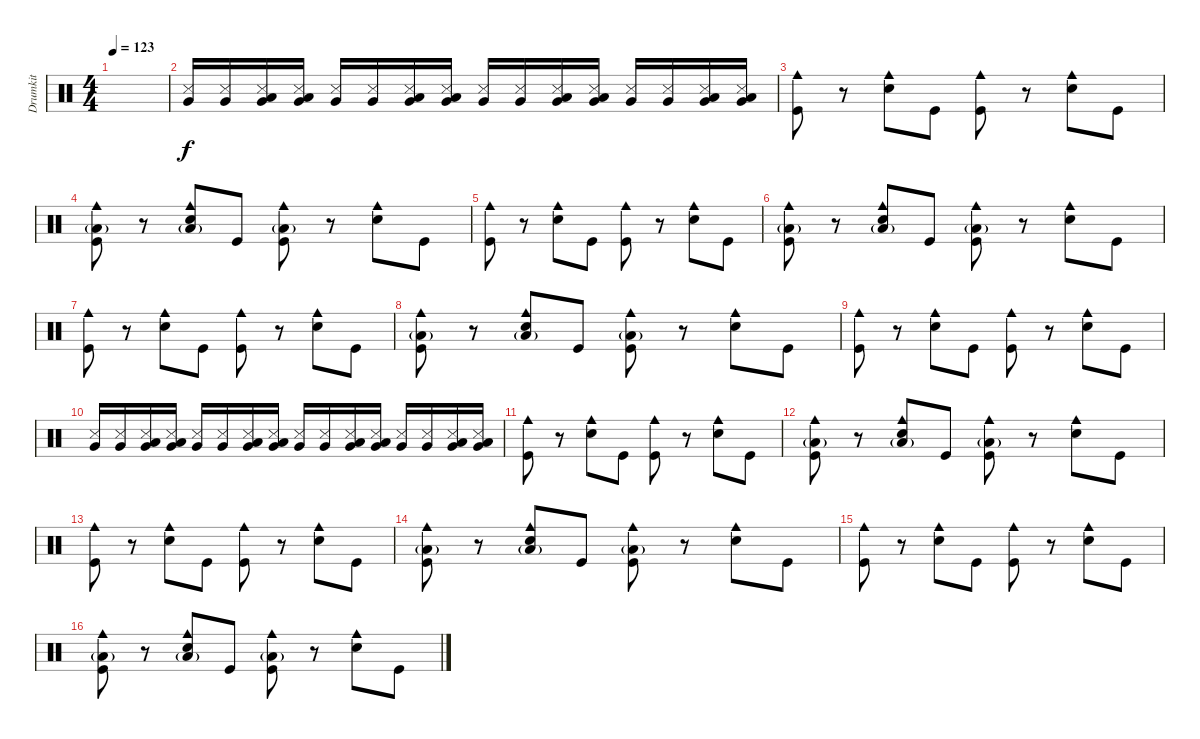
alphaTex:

\track ("Drumkit" "Drumkit") {instrument percussion}
\staff {score}
\articulation defaults
\ts (4 4)
\tempo 123
\clef neutral
\ks c
|
("Snare (side stick) 3" "Very Low Tom (hit)").16 ("Snare (side stick) 3" "Very Low Tom (hit)").16 ("Snare (side stick) 3" "Very Low Tom (hit)" "Low Floor Tom (hit)").16 ("Snare (side stick) 3" "Very Low Tom (hit)" "Low Floor Tom (hit)").16 ("Snare (side stick) 3" "Very Low Tom (hit)").16 ("Snare (side stick) 3" "Very Low Tom (hit)").16 ("Snare (side stick) 3" "Very Low Tom (hit)" "Low Floor Tom (hit)").16 ("Snare (side stick) 3" "Very Low Tom (hit)" "Low Floor Tom (hit)").16 ("Snare (side stick) 3" "Very Low Tom (hit)").16 ("Snare (side stick) 3" "Very Low Tom (hit)").16 ("Snare (side stick) 3" "Very Low Tom (hit)" "Low Floor Tom (hit)").16 ("Snare (side stick) 3" "Very Low Tom (hit)" "Low Floor Tom (hit)").16 ("Snare (side stick) 3" "Very Low Tom (hit)").16 ("Snare (side stick) 3" "Very Low Tom (hit)").16 ("Snare (side stick) 3" "Very Low Tom (hit)" "Low Floor Tom (hit)").16 ("Snare (side stick) 3" "Very Low Tom (hit)" "Low Floor Tom (hit)").16 |
("Kick (hit)" "Cowbell medium (hit)").8 r.8 ("Snare (hit) 2" "Cowbell medium (hit)").8 "Kick (hit)".8 ("Kick (hit)" "Cowbell medium (hit)").8 r.8 ("Snare (hit) 2" "Cowbell medium (hit)").8 "Kick (hit)".8 |
("Kick (hit)" "Low Floor Tom (hit)"{g} "Cowbell medium (hit)").8 r.8 ("Snare (hit) 2" "Low Floor Tom (hit)"{g} "Cowbell medium (hit)").8 "Kick (hit)".8 ("Kick (hit)" "Low Floor Tom (hit)"{g} "Cowbell medium (hit)").8 r.8 ("Snare (hit) 2" "Cowbell medium (hit)").8 "Kick (hit)".8 |
("Kick (hit)" "Cowbell medium (hit)").8 r.8 ("Snare (hit) 2" "Cowbell medium (hit)").8 "Kick (hit)".8 ("Kick (hit)" "Cowbell medium (hit)").8 r.8 ("Snare (hit) 2" "Cowbell medium (hit)").8 "Kick (hit)".8 |
("Kick (hit)" "Low Floor Tom (hit)"{g} "Cowbell medium (hit)").8 r.8 ("Snare (hit) 2" "Low Floor Tom (hit)"{g} "Cowbell medium (hit)").8 "Kick (hit)".8 ("Kick (hit)" "Low Floor Tom (hit)"{g} "Cowbell medium (hit)").8 r.8 ("Snare (hit) 2" "Cowbell medium (hit)").8 "Kick (hit)".8 |
("Kick (hit)" "Cowbell medium (hit)").8 r.8 ("Snare (hit) 2" "Cowbell medium (hit)").8 "Kick (hit)".8 ("Kick (hit)" "Cowbell medium (hit)").8 r.8 ("Snare (hit) 2" "Cowbell medium (hit)").8 "Kick (hit)".8 |
("Kick (hit)" "Low Floor Tom (hit)"{g} "Cowbell medium (hit)").8 r.8 ("Snare (hit) 2" "Low Floor Tom (hit)"{g} "Cowbell medium (hit)").8 "Kick (hit)".8 ("Kick (hit)" "Low Floor Tom (hit)"{g} "Cowbell medium (hit)").8 r.8 ("Snare (hit) 2" "Cowbell medium (hit)").8 "Kick (hit)".8 |
("Kick (hit)" "Cowbell medium (hit)").8 r.8 ("Snare (hit) 2" "Cowbell medium (hit)").8 "Kick (hit)".8 ("Kick (hit)" "Cowbell medium (hit)").8 r.8 ("Snare (hit) 2" "Cowbell medium (hit)").8 "Kick (hit)".8 |
("Snare (side stick) 3" "Very Low Tom (hit)").16 ("Snare (side stick) 3" "Very Low Tom (hit)").16 ("Snare (side stick) 3" "Very Low Tom (hit)" "Low Floor Tom (hit)").16 ("Snare (side stick) 3" "Very Low Tom (hit)" "Low Floor Tom (hit)").16 ("Snare (side stick) 3" "Very Low Tom (hit)").16 ("Snare (side stick) 3" "Very Low Tom (hit)").16 ("Snare (side stick) 3" "Very Low Tom (hit)" "Low Floor Tom (hit)").16 ("Snare (side stick) 3" "Very Low Tom (hit)" "Low Floor Tom (hit)").16 ("Snare (side stick) 3" "Very Low Tom (hit)").16 ("Snare (side stick) 3" "Very Low Tom (hit)").16 ("Snare (side stick) 3" "Very Low Tom (hit)" "Low Floor Tom (hit)").16 ("Snare (side stick) 3" "Very Low Tom (hit)" "Low Floor Tom (hit)").16 ("Snare (side stick) 3" "Very Low Tom (hit)").16 ("Snare (side stick) 3" "Very Low Tom (hit)").16 ("Snare (side stick) 3" "Very Low Tom (hit)" "Low Floor Tom (hit)").16 ("Snare (side stick) 3" "Very Low Tom (hit)" "Low Floor Tom (hit)").16 |
("Kick (hit)" "Cowbell medium (hit)").8 r.8 ("Snare (hit) 2" "Cowbell medium (hit)").8 "Kick (hit)".8 ("Kick (hit)" "Cowbell medium (hit)").8 r.8 ("Snare (hit) 2" "Cowbell medium (hit)").8 "Kick (hit)".8 |
("Kick (hit)" "Low Floor Tom (hit)"{g} "Cowbell medium (hit)").8 r.8 ("Snare (hit) 2" "Low Floor Tom (hit)"{g} "Cowbell medium (hit)").8 "Kick (hit)".8 ("Kick (hit)" "Low Floor Tom (hit)"{g} "Cowbell medium (hit)").8 r.8 ("Snare (hit) 2" "Cowbell medium (hit)").8 "Kick (hit)".8 |
("Kick (hit)" "Cowbell medium (hit)").8 r.8 ("Snare (hit) 2" "Cowbell medium (hit)").8 "Kick (hit)".8 ("Kick (hit)" "Cowbell medium (hit)").8 r.8 ("Snare (hit) 2" "Cowbell medium (hit)").8 "Kick (hit)".8 |
("Kick (hit)" "Low Floor Tom (hit)"{g} "Cowbell medium (hit)").8 r.8 ("Snare (hit) 2" "Low Floor Tom (hit)"{g} "Cowbell medium (hit)").8 "Kick (hit)".8 ("Kick (hit)" "Low Floor Tom (hit)"{g} "Cowbell medium (hit)").8 r.8 ("Snare (hit) 2" "Cowbell medium (hit)").8 "Kick (hit)".8 |
("Kick (hit)" "Cowbell medium (hit)").8 r.8 ("Snare (hit) 2" "Cowbell medium (hit)").8 "Kick (hit)".8 ("Kick (hit)" "Cowbell medium (hit)").8 r.8 ("Snare (hit) 2" "Cowbell medium (hit)").8 "Kick (hit)".8 |
("Kick (hit)" "Low Floor Tom (hit)"{g} "Cowbell medium (hit)").8 r.8 ("Snare (hit) 2" "Low Floor Tom (hit)"{g} "Cowbell medium (hit)").8 "Kick (hit)".8 ("Kick (hit)" "Low Floor Tom (hit)"{g} "Cowbell medium (hit)").8 r.8 ("Snare (hit) 2" "Cowbell medium (hit)").8 "Kick (hit)".8
